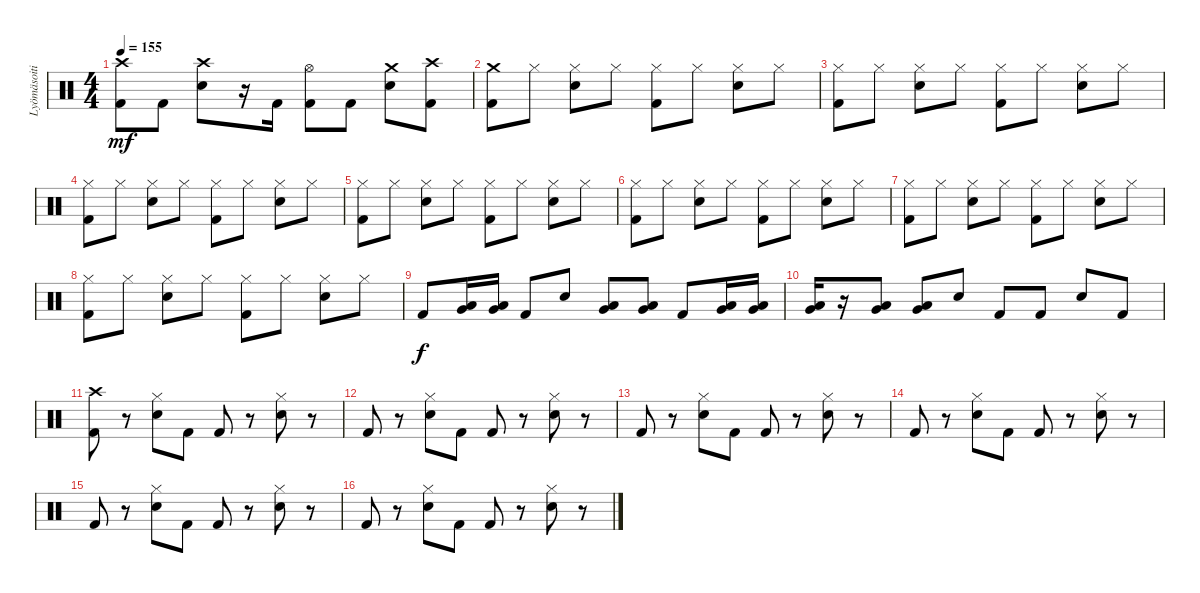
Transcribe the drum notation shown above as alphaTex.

\track ("Lyömäsoitin" "Lyömäsoiti") {instrument percussion}
\staff {score}
\articulation defaults
\ts (4 4)
\tempo 155
\clef neutral
\ks c
("Crash high (hit)" "Kick (hit) 2").8{dy mf} "Kick (hit) 2".8 ("Crash high (hit)" "Snare (hit) 2").8 r.16 "Kick (hit) 2".16 ("Hi-Hat (open)" "Kick (hit) 2").8 "Kick (hit) 2".8 ("Crash medium (hit)" "Snare (hit) 2").8 ("Crash high (hit)" "Kick (hit) 2").8 |
("Crash medium (hit)" "Kick (hit) 2").8 "Hi-Hat (closed)".8 ("Hi-Hat (closed)" "Snare (hit) 2").8 "Hi-Hat (closed)".8 ("Hi-Hat (closed)" "Kick (hit) 2").8 "Hi-Hat (closed)".8 ("Hi-Hat (closed)" "Snare (hit) 2").8 "Hi-Hat (closed)".8 |
("Hi-Hat (closed)" "Kick (hit) 2").8 "Hi-Hat (closed)".8 ("Hi-Hat (closed)" "Snare (hit) 2").8 "Hi-Hat (closed)".8 ("Hi-Hat (closed)" "Kick (hit) 2").8 "Hi-Hat (closed)".8 ("Hi-Hat (closed)" "Snare (hit) 2").8 "Hi-Hat (closed)".8 |
("Hi-Hat (closed)" "Kick (hit) 2").8 "Hi-Hat (closed)".8 ("Hi-Hat (closed)" "Snare (hit) 2").8 "Hi-Hat (closed)".8 ("Hi-Hat (closed)" "Kick (hit) 2").8 "Hi-Hat (closed)".8 ("Hi-Hat (closed)" "Snare (hit) 2").8 "Hi-Hat (closed)".8 |
("Hi-Hat (closed)" "Kick (hit) 2").8 "Hi-Hat (closed)".8 ("Hi-Hat (closed)" "Snare (hit) 2").8 "Hi-Hat (closed)".8 ("Hi-Hat (closed)" "Kick (hit) 2").8 "Hi-Hat (closed)".8 ("Hi-Hat (closed)" "Snare (hit) 2").8 "Hi-Hat (closed)".8 |
("Hi-Hat (closed)" "Kick (hit) 2").8 "Hi-Hat (closed)".8 ("Hi-Hat (closed)" "Snare (hit) 2").8 "Hi-Hat (closed)".8 ("Hi-Hat (closed)" "Kick (hit) 2").8 "Hi-Hat (closed)".8 ("Hi-Hat (closed)" "Snare (hit) 2").8 "Hi-Hat (closed)".8 |
("Hi-Hat (closed)" "Kick (hit) 2").8 "Hi-Hat (closed)".8 ("Hi-Hat (closed)" "Snare (hit) 2").8 "Hi-Hat (closed)".8 ("Hi-Hat (closed)" "Kick (hit) 2").8 "Hi-Hat (closed)".8 ("Hi-Hat (closed)" "Snare (hit) 2").8 "Hi-Hat (closed)".8 |
("Hi-Hat (closed)" "Kick (hit) 2").8 "Hi-Hat (closed)".8 ("Hi-Hat (closed)" "Snare (hit) 2").8 "Hi-Hat (closed)".8 ("Hi-Hat (closed)" "Kick (hit) 2").8 "Hi-Hat (closed)".8 ("Hi-Hat (closed)" "Snare (hit) 2").8 "Hi-Hat (closed)".8 |
"Kick (hit) 2".8{dy f} ("Low Tom (hit)" "Very Low Tom (hit)").16 ("Very Low Tom (hit)" "Low Floor Tom (hit)").16 "Kick (hit) 2".8 "Snare (hit) 2".8 ("Low Tom (hit)" "Very Low Tom (hit)").8 ("Low Tom (hit)" "Very Low Tom (hit)").8 "Kick (hit) 2".8 ("Low Tom (hit)" "Very Low Tom (hit)").16 ("Very Low Tom (hit)" "Low Floor Tom (hit)").16 |
("Low Tom (hit)" "Very Low Tom (hit)").16 r.16 ("Low Tom (hit)" "Very Low Tom (hit)").8 ("Very Low Tom (hit)" "Low Floor Tom (hit)").8 "Snare (hit) 2".8 "Kick (hit) 2".8 "Kick (hit) 2".8 "Snare (hit) 2".8 "Kick (hit) 2".8 |
("Crash high (hit)" "Kick (hit) 2").8 r.8 ("Hi-Hat (closed)" "Snare (hit) 2").8 "Kick (hit) 2".8 "Kick (hit) 2".8 r.8 ("Hi-Hat (closed)" "Snare (hit) 2").8 r.8 |
"Kick (hit) 2".8 r.8 ("Hi-Hat (closed)" "Snare (hit) 2").8 "Kick (hit) 2".8 "Kick (hit) 2".8 r.8 ("Hi-Hat (closed)" "Snare (hit) 2").8 r.8 |
"Kick (hit) 2".8 r.8 ("Hi-Hat (closed)" "Snare (hit) 2").8 "Kick (hit) 2".8 "Kick (hit) 2".8 r.8 ("Hi-Hat (closed)" "Snare (hit) 2").8 r.8 |
"Kick (hit) 2".8 r.8 ("Hi-Hat (closed)" "Snare (hit) 2").8 "Kick (hit) 2".8 "Kick (hit) 2".8 r.8 ("Hi-Hat (closed)" "Snare (hit) 2").8 r.8 |
"Kick (hit) 2".8 r.8 ("Hi-Hat (closed)" "Snare (hit) 2").8 "Kick (hit) 2".8 "Kick (hit) 2".8 r.8 ("Hi-Hat (closed)" "Snare (hit) 2").8 r.8 |
"Kick (hit) 2".8 r.8 ("Hi-Hat (closed)" "Snare (hit) 2").8 "Kick (hit) 2".8 "Kick (hit) 2".8 r.8 ("Hi-Hat (closed)" "Snare (hit) 2").8 r.8
